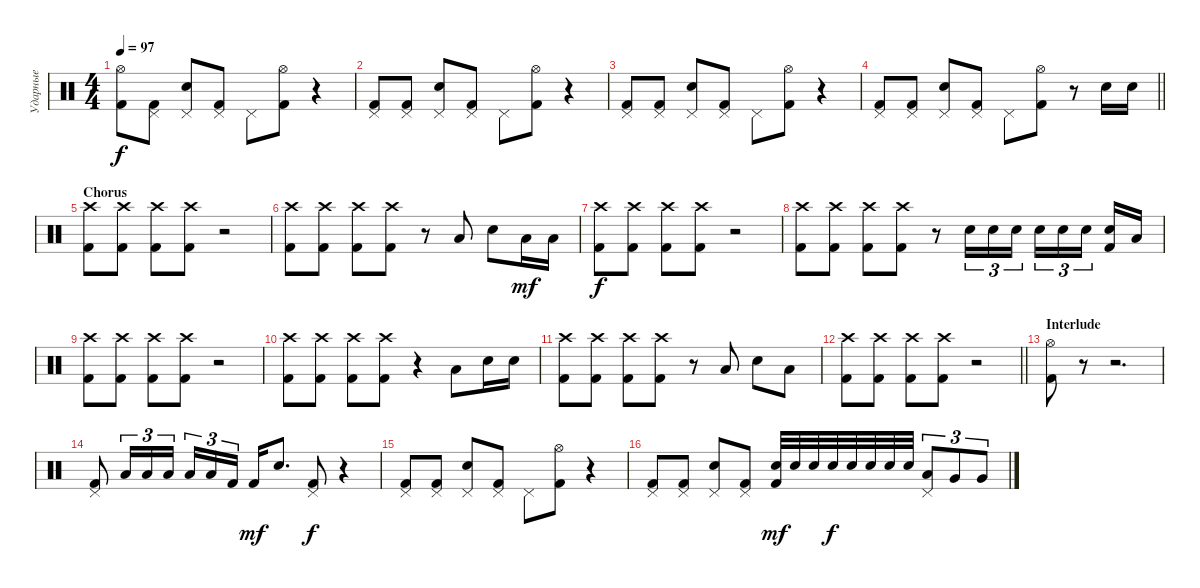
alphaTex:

\track ("Ударные" "Ударные") {instrument percussion}
\staff {score}
\articulation defaults
\ts (4 4)
\tempo 97
\clef neutral
\ks c
("Hi-Hat (open)" "Kick (hit) 2").8{dy f} ("Pedal Hi-Hat (hit)" "Kick (hit) 2").8 ("Pedal Hi-Hat (hit)" "Snare (hit) 2").8 ("Pedal Hi-Hat (hit)" "Kick (hit) 2").8 "Pedal Hi-Hat (hit)".8 ("Hi-Hat (open)" "Kick (hit) 2").8 r.4 |
("Pedal Hi-Hat (hit)" "Kick (hit) 2").8 ("Pedal Hi-Hat (hit)" "Kick (hit) 2").8 ("Pedal Hi-Hat (hit)" "Snare (hit) 2").8 ("Pedal Hi-Hat (hit)" "Kick (hit) 2").8 "Pedal Hi-Hat (hit)".8 ("Hi-Hat (open)" "Kick (hit) 2").8 r.4 |
("Pedal Hi-Hat (hit)" "Kick (hit) 2").8 ("Pedal Hi-Hat (hit)" "Kick (hit) 2").8 ("Pedal Hi-Hat (hit)" "Snare (hit) 2").8 ("Pedal Hi-Hat (hit)" "Kick (hit) 2").8 "Pedal Hi-Hat (hit)".8 ("Hi-Hat (open)" "Kick (hit) 2").8 r.4 |
\barLineRight lightlight
("Pedal Hi-Hat (hit)" "Kick (hit) 2").8 ("Pedal Hi-Hat (hit)" "Kick (hit) 2").8 ("Pedal Hi-Hat (hit)" "Snare (hit) 2").8 ("Pedal Hi-Hat (hit)" "Kick (hit) 2").8 "Pedal Hi-Hat (hit)".8 ("Hi-Hat (open)" "Kick (hit) 2").8 r.8 "Snare (hit) 2".16 "Snare (hit) 2".16 |
\section ("" "Chorus")
("Crash high (hit)" "Kick (hit) 2").8 ("Crash high (hit)" "Kick (hit) 2").8 ("Crash high (hit)" "Kick (hit) 2").8 ("Crash high (hit)" "Kick (hit) 2").8 r.2 |
("Crash high (hit)" "Kick (hit) 2").8 ("Crash high (hit)" "Kick (hit) 2").8 ("Crash high (hit)" "Kick (hit) 2").8 ("Crash high (hit)" "Kick (hit) 2").8 r.8 "Low Tom (hit)".8 "Snare (hit) 2".8 "Low Tom (hit)".16{dy mf} "Low Tom (hit)".16 |
("Crash high (hit)" "Kick (hit) 2").8{dy f} ("Crash high (hit)" "Kick (hit) 2").8 ("Crash high (hit)" "Kick (hit) 2").8 ("Crash high (hit)" "Kick (hit) 2").8 r.2 |
("Crash high (hit)" "Kick (hit) 2").8 ("Crash high (hit)" "Kick (hit) 2").8 ("Crash high (hit)" "Kick (hit) 2").8 ("Crash high (hit)" "Kick (hit) 2").8 r.8 "Snare (hit) 2".16{tu (3 2)} "Snare (hit) 2".16{tu (3 2)} "Snare (hit) 2".16{tu (3 2)} "Snare (hit) 2".16{tu (3 2)} "Snare (hit) 2".16{tu (3 2)} "Snare (hit) 2".16{tu (3 2) beam splitsecondary} ("Snare (hit) 2" "Kick (hit) 2").16 "Low Tom (hit)".16 |
("Crash high (hit)" "Kick (hit) 2").8 ("Crash high (hit)" "Kick (hit) 2").8 ("Crash high (hit)" "Kick (hit) 2").8 ("Crash high (hit)" "Kick (hit) 2").8 r.2 |
("Crash high (hit)" "Kick (hit) 2").8 ("Crash high (hit)" "Kick (hit) 2").8 ("Crash high (hit)" "Kick (hit) 2").8 ("Crash high (hit)" "Kick (hit) 2").8 r.4 "Low Tom (hit)".8 "Snare (hit) 2".16 "Snare (hit) 2".16 |
("Crash high (hit)" "Kick (hit) 2").8 ("Crash high (hit)" "Kick (hit) 2").8 ("Crash high (hit)" "Kick (hit) 2").8 ("Crash high (hit)" "Kick (hit) 2").8 r.8 "Low Tom (hit)".8 "Snare (hit) 2".8 "Low Tom (hit)".8 |
\barLineRight lightlight
("Crash high (hit)" "Kick (hit) 2").8 ("Crash high (hit)" "Kick (hit) 2").8 ("Crash high (hit)" "Kick (hit) 2").8 ("Crash high (hit)" "Kick (hit) 2").8 r.2 |
\section ("" "Interlude")
("Hi-Hat (open)" "Kick (hit) 2").8 r.8 r.2{d} |
("Pedal Hi-Hat (hit)" "Kick (hit) 2").8 "Low Tom (hit)".16{tu (3 2)} "Low Tom (hit)".16{tu (3 2)} "Low Tom (hit)".16{tu (3 2)} "Low Tom (hit)".16{tu (3 2)} "Low Tom (hit)".16{tu (3 2)} "Kick (hit) 2".16{tu (3 2) beam splitsecondary} "Kick (hit) 2".16{dy mf} "Snare (hit) 2".8{d} ("Pedal Hi-Hat (hit)" "Kick (hit) 2").8{dy f} r.4 |
("Pedal Hi-Hat (hit)" "Kick (hit) 2").8 ("Pedal Hi-Hat (hit)" "Kick (hit) 2").8 ("Pedal Hi-Hat (hit)" "Snare (hit) 2").8 ("Pedal Hi-Hat (hit)" "Kick (hit) 2").8 "Pedal Hi-Hat (hit)".8 ("Hi-Hat (open)" "Kick (hit) 2").8 r.4 |
("Pedal Hi-Hat (hit)" "Kick (hit) 2").8 ("Pedal Hi-Hat (hit)" "Kick (hit) 2").8 ("Pedal Hi-Hat (hit)" "Snare (hit) 2").8 ("Pedal Hi-Hat (hit)" "Kick (hit) 2").8 ("Snare (hit) 2" "Kick (hit) 2").32{dy mf} "Snare (hit) 2".32 "Snare (hit) 2".32 "Snare (hit) 2".32{dy f} "Snare (hit) 2".32 "Snare (hit) 2".32 "Snare (hit) 2".32 "Snare (hit) 2".32 ("Pedal Hi-Hat (hit)" "Low Tom (hit)").8{tu (3 2)} "Very Low Tom (hit)".8{tu (3 2)} "Very Low Tom (hit)".8{tu (3 2)}
